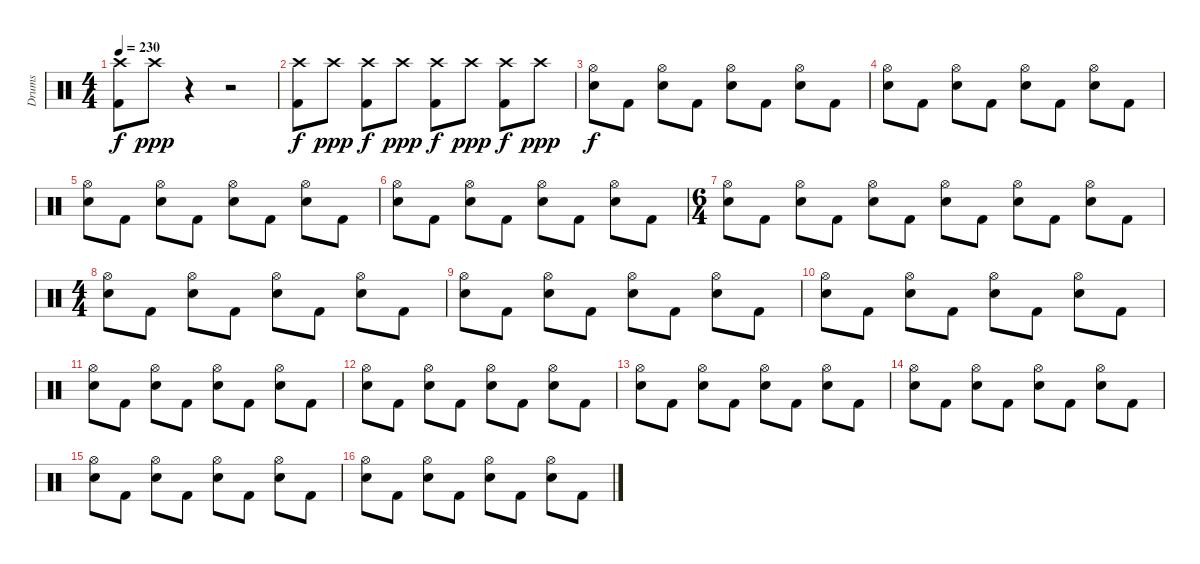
\track ("Drums" "Drums") {instrument percussion}
\staff {score}
\articulation defaults
\ts (4 4)
\tempo 230
\clef neutral
\ks c
("Crash high (hit)" "Kick (hit) 2").8{dy f} "Crash high (hit)".8{dy ppp} r.4 r.2 |
("Crash high (hit)" "Kick (hit) 2").8{dy f} "Crash high (hit)".8{dy ppp} ("Crash high (hit)" "Kick (hit) 2").8{dy f} "Crash high (hit)".8{dy ppp} ("Crash high (hit)" "Kick (hit) 2").8{dy f} "Crash high (hit)".8{dy ppp} ("Crash high (hit)" "Kick (hit) 2").8{dy f} "Crash high (hit)".8{dy ppp} |
("Hi-Hat (open)" "Electric Snare (hit)").8{dy f} "Kick (hit) 2".8 ("Hi-Hat (open)" "Electric Snare (hit)").8 "Kick (hit) 2".8 ("Hi-Hat (open)" "Electric Snare (hit)").8 "Kick (hit) 2".8 ("Hi-Hat (open)" "Electric Snare (hit)").8 "Kick (hit) 2".8 |
("Hi-Hat (open)" "Electric Snare (hit)").8 "Kick (hit) 2".8 ("Hi-Hat (open)" "Electric Snare (hit)").8 "Kick (hit) 2".8 ("Hi-Hat (open)" "Electric Snare (hit)").8 "Kick (hit) 2".8 ("Hi-Hat (open)" "Electric Snare (hit)").8 "Kick (hit) 2".8 |
("Hi-Hat (open)" "Electric Snare (hit)").8 "Kick (hit) 2".8 ("Hi-Hat (open)" "Electric Snare (hit)").8 "Kick (hit) 2".8 ("Hi-Hat (open)" "Electric Snare (hit)").8 "Kick (hit) 2".8 ("Hi-Hat (open)" "Electric Snare (hit)").8 "Kick (hit) 2".8 |
("Hi-Hat (open)" "Electric Snare (hit)").8 "Kick (hit) 2".8 ("Hi-Hat (open)" "Electric Snare (hit)").8 "Kick (hit) 2".8 ("Hi-Hat (open)" "Electric Snare (hit)").8 "Kick (hit) 2".8 ("Hi-Hat (open)" "Electric Snare (hit)").8 "Kick (hit) 2".8 |
\ts (6 4)
("Hi-Hat (open)" "Electric Snare (hit)").8 "Kick (hit) 2".8 ("Hi-Hat (open)" "Electric Snare (hit)").8 "Kick (hit) 2".8 ("Hi-Hat (open)" "Electric Snare (hit)").8 "Kick (hit) 2".8 ("Hi-Hat (open)" "Electric Snare (hit)").8 "Kick (hit) 2".8 ("Hi-Hat (open)" "Electric Snare (hit)").8 "Kick (hit) 2".8 ("Hi-Hat (open)" "Electric Snare (hit)").8 "Kick (hit) 2".8 |
\ts (4 4)
("Hi-Hat (open)" "Electric Snare (hit)").8 "Kick (hit) 2".8 ("Hi-Hat (open)" "Electric Snare (hit)").8 "Kick (hit) 2".8 ("Hi-Hat (open)" "Electric Snare (hit)").8 "Kick (hit) 2".8 ("Hi-Hat (open)" "Electric Snare (hit)").8 "Kick (hit) 2".8 |
("Hi-Hat (open)" "Electric Snare (hit)").8 "Kick (hit) 2".8 ("Hi-Hat (open)" "Electric Snare (hit)").8 "Kick (hit) 2".8 ("Hi-Hat (open)" "Electric Snare (hit)").8 "Kick (hit) 2".8 ("Hi-Hat (open)" "Electric Snare (hit)").8 "Kick (hit) 2".8 |
("Hi-Hat (open)" "Electric Snare (hit)").8 "Kick (hit) 2".8 ("Hi-Hat (open)" "Electric Snare (hit)").8 "Kick (hit) 2".8 ("Hi-Hat (open)" "Electric Snare (hit)").8 "Kick (hit) 2".8 ("Hi-Hat (open)" "Electric Snare (hit)").8 "Kick (hit) 2".8 |
("Hi-Hat (open)" "Electric Snare (hit)").8 "Kick (hit) 2".8 ("Hi-Hat (open)" "Electric Snare (hit)").8 "Kick (hit) 2".8 ("Hi-Hat (open)" "Electric Snare (hit)").8 "Kick (hit) 2".8 ("Hi-Hat (open)" "Electric Snare (hit)").8 "Kick (hit) 2".8 |
("Hi-Hat (open)" "Electric Snare (hit)").8 "Kick (hit) 2".8 ("Hi-Hat (open)" "Electric Snare (hit)").8 "Kick (hit) 2".8 ("Hi-Hat (open)" "Electric Snare (hit)").8 "Kick (hit) 2".8 ("Hi-Hat (open)" "Electric Snare (hit)").8 "Kick (hit) 2".8 |
("Hi-Hat (open)" "Electric Snare (hit)").8 "Kick (hit) 2".8 ("Hi-Hat (open)" "Electric Snare (hit)").8 "Kick (hit) 2".8 ("Hi-Hat (open)" "Electric Snare (hit)").8 "Kick (hit) 2".8 ("Hi-Hat (open)" "Electric Snare (hit)").8 "Kick (hit) 2".8 |
("Hi-Hat (open)" "Electric Snare (hit)").8 "Kick (hit) 2".8 ("Hi-Hat (open)" "Electric Snare (hit)").8 "Kick (hit) 2".8 ("Hi-Hat (open)" "Electric Snare (hit)").8 "Kick (hit) 2".8 ("Hi-Hat (open)" "Electric Snare (hit)").8 "Kick (hit) 2".8 |
("Hi-Hat (open)" "Electric Snare (hit)").8 "Kick (hit) 2".8 ("Hi-Hat (open)" "Electric Snare (hit)").8 "Kick (hit) 2".8 ("Hi-Hat (open)" "Electric Snare (hit)").8 "Kick (hit) 2".8 ("Hi-Hat (open)" "Electric Snare (hit)").8 "Kick (hit) 2".8 |
("Hi-Hat (open)" "Electric Snare (hit)").8 "Kick (hit) 2".8 ("Hi-Hat (open)" "Electric Snare (hit)").8 "Kick (hit) 2".8 ("Hi-Hat (open)" "Electric Snare (hit)").8 "Kick (hit) 2".8 ("Hi-Hat (open)" "Electric Snare (hit)").8 "Kick (hit) 2".8
